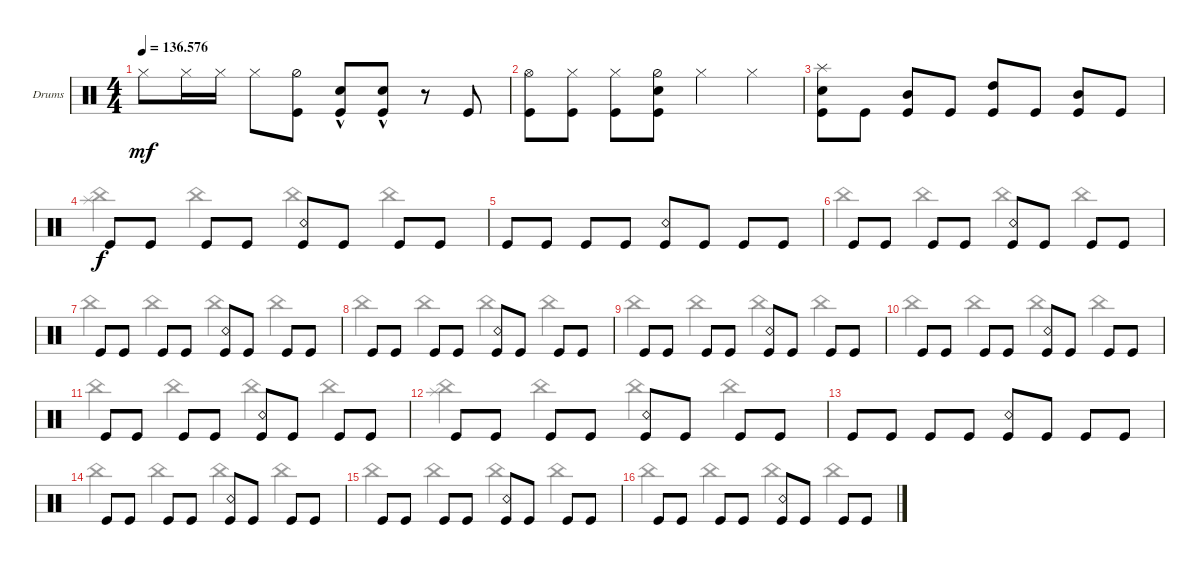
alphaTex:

\bracketExtendMode groupsimilarinstruments
\firstSystemTrackNameOrientation horizontal
\otherSystemsTrackNameOrientation horizontal
\track ("Drumkit" "Drums") {instrument percussion}
\staff {score}
\articulation defaults
\voice
\ts (4 4)
\tempo
136.576
\accidentals auto
\clef neutral
\ottava regular
\simile none
\ks c "Hi-Hat (closed)".8{dy mf} "Hi-Hat (closed)".16 "Hi-Hat (closed)".16 "Hi-Hat (closed)".8
("Hi-Hat (half)" "Kick (hit)").8 ("Kick (hit)" "Snare (hit) 2"{hac}).8 ("Kick (hit)" "Snare (hit) 2"{hac}).8 r.8 "Kick (hit)".8 |
("Kick (hit)" "Hi-Hat (open)").8 ("Kick (hit)" "Hi-Hat (closed)").8 ("Kick (hit)" "Hi-Hat (closed)").8 ("Kick (hit)" "Snare (hit) 2" "Hi-Hat (half)").8 "Hi-Hat (closed)".4 "Hi-Hat (closed)".4 |
("Kick (hit)" "Splash (hit)" "Snare (hit) 2").8 "Kick (hit)".8 ("Kick (hit)" "Mid Tom (hit)").8 "Kick (hit)".8 ("Kick (hit)" "High Tom (hit)").8 "Kick (hit)".8 ("Kick (hit)" "Mid Tom (hit)").8 "Kick (hit)".8 |
"Kick (hit)".8{dy f} "Kick (hit)".8 "Kick (hit)".8 "Kick (hit)".8 ("Kick (hit)" "Snare (rim shot)").8 "Kick (hit)".8 "Kick (hit)".8 "Kick (hit)".8 |
"Kick (hit)".8 "Kick (hit)".8 "Kick (hit)".8 "Kick (hit)".8 ("Kick (hit)" "Snare (rim shot)").8 "Kick (hit)".8 "Kick (hit)".8 "Kick (hit)".8 |
"Kick (hit)".8 "Kick (hit)".8 "Kick (hit)".8 "Kick (hit)".8 ("Kick (hit)" "Snare (rim shot)").8 "Kick (hit)".8 "Kick (hit)".8 "Kick (hit)".8 |
"Kick (hit)".8 "Kick (hit)".8 "Kick (hit)".8 "Kick (hit)".8 ("Kick (hit)" "Snare (rim shot)").8 "Kick (hit)".8 "Kick (hit)".8 "Kick (hit)".8 |
"Kick (hit)".8 "Kick (hit)".8 "Kick (hit)".8 "Kick (hit)".8 ("Kick (hit)" "Snare (rim shot)").8 "Kick (hit)".8 "Kick (hit)".8 "Kick (hit)".8 |
"Kick (hit)".8 "Kick (hit)".8 "Kick (hit)".8 "Kick (hit)".8 ("Kick (hit)" "Snare (rim shot)").8 "Kick (hit)".8 "Kick (hit)".8 "Kick (hit)".8 |
"Kick (hit)".8 "Kick (hit)".8 "Kick (hit)".8 "Kick (hit)".8 ("Kick (hit)" "Snare (rim shot)").8 "Kick (hit)".8 "Kick (hit)".8 "Kick (hit)".8 |
"Kick (hit)".8 "Kick (hit)".8 "Kick (hit)".8 "Kick (hit)".8 ("Kick (hit)" "Snare (rim shot)").8 "Kick (hit)".8 "Kick (hit)".8 "Kick (hit)".8 |
"Kick (hit)".8 "Kick (hit)".8 "Kick (hit)".8 "Kick (hit)".8 ("Kick (hit)" "Snare (rim shot)").8 "Kick (hit)".8 "Kick (hit)".8 "Kick (hit)".8 |
"Kick (hit)".8 "Kick (hit)".8 "Kick (hit)".8 "Kick (hit)".8 ("Kick (hit)" "Snare (rim shot)").8 "Kick (hit)".8 "Kick (hit)".8 "Kick (hit)".8 |
"Kick (hit)".8 "Kick (hit)".8 "Kick (hit)".8 "Kick (hit)".8 ("Kick (hit)" "Snare (rim shot)").8 "Kick (hit)".8 "Kick (hit)".8 "Kick (hit)".8 |
"Kick (hit)".8 "Kick (hit)".8 "Kick (hit)".8 "Kick (hit)".8 ("Kick (hit)" "Snare (rim shot)").8 "Kick (hit)".8 "Kick (hit)".8 "Kick (hit)".8 |
"Kick (hit)".8 "Kick (hit)".8 "Kick (hit)".8 "Kick (hit)".8 ("Kick (hit)" "Snare (rim shot)").8 "Kick (hit)".8 "Kick (hit)".8 "Kick (hit)".8
\voice
\clef neutral
\ottava regular
\simile none
\ks c
|
|
|
("China (hit)" "Splash (hit)").4 "China (hit)".4 "China (hit)".4 "China (hit)".4 |
|
"China (hit)".4 "China (hit)".4 "China (hit)".4 "China (hit)".4 |
"China (hit)".4 "China (hit)".4 "China (hit)".4 "China (hit)".4 |
"China (hit)".4 "China (hit)".4 "China (hit)".4 "China (hit)".4 |
"China (hit)".4 "China (hit)".4 "China (hit)".4 "China (hit)".4 |
"China (hit)".4 "China (hit)".4 "China (hit)".4 "China (hit)".4 |
"China (hit)".4 "China (hit)".4 "China (hit)".4 "China (hit)".4 |
("China (hit)" "Splash (hit)").4 "China (hit)".4 "China (hit)".4 "China (hit)".4 |
|
"China (hit)".4 "China (hit)".4 "China (hit)".4 "China (hit)".4 |
"China (hit)".4 "China (hit)".4 "China (hit)".4 "China (hit)".4 |
"China (hit)".4 "China (hit)".4 "China (hit)".4 "China (hit)".4
